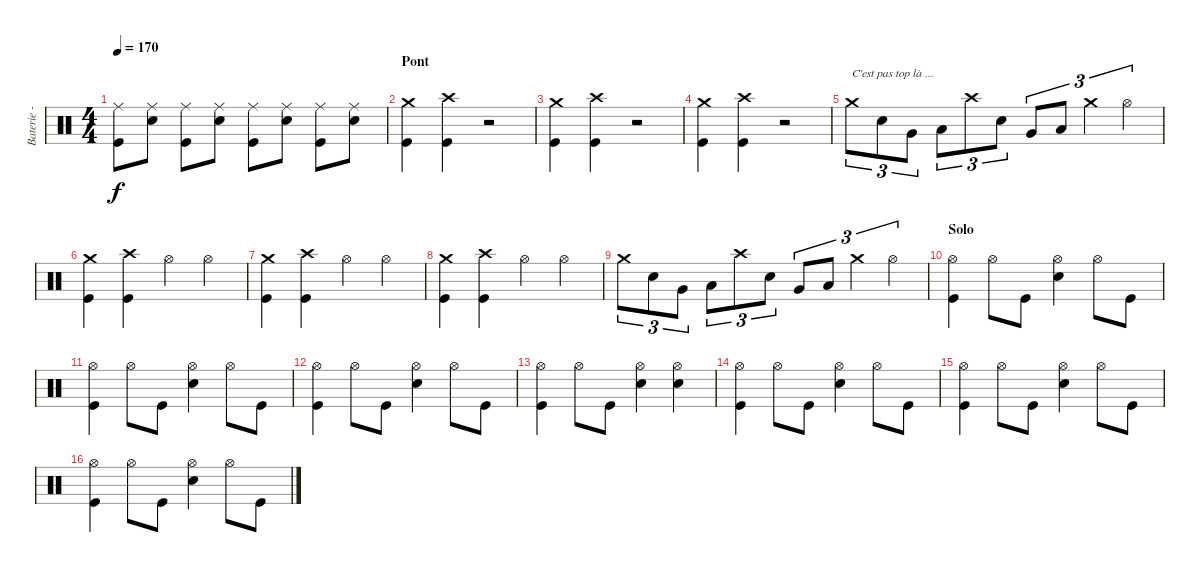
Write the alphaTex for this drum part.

\track ("Baterie - Guillaume" "Baterie - ") {instrument percussion}
\staff {score}
\articulation defaults
\ts (4 4)
\tempo 170
\clef neutral
\ks c
("Ride (middle)" "Kick (hit)").8{dy f} ("Ride (middle)" "Electric Snare (hit)").8 ("Ride (middle)" "Kick (hit)").8 ("Ride (middle)" "Electric Snare (hit)").8 ("Ride (middle)" "Kick (hit)").8 ("Ride (middle)" "Electric Snare (hit)").8 ("Ride (middle)" "Kick (hit)").8 ("Ride (middle)" "Electric Snare (hit)").8 |
\section ("" "Pont")
("Crash medium (hit)" "Kick (hit)").4 ("Crash high (hit)" "Kick (hit)").4 r.2 |
("Crash medium (hit)" "Kick (hit)").4 ("Crash high (hit)" "Kick (hit)").4 r.2 |
("Crash medium (hit)" "Kick (hit)").4 ("Crash high (hit)" "Kick (hit)").4 r.2 |
"Crash medium (hit)".8{tu (3 2) txt "C'est pas top là ... "} "Electric Snare (hit)".8{tu (3 2)} "Very Low Tom (hit)".8{tu (3 2)} "Low Tom (hit)".8{tu (3 2)} "Crash high (hit)".8{tu (3 2)} "Electric Snare (hit)".8{tu (3 2)} "Very Low Tom (hit)".8{tu (3 2)} "Low Tom (hit)".8{tu (3 2)} "Crash medium (hit)".4{tu (3 2)} "Hi-Hat (open)".4{tu (3 2)} |
("Crash medium (hit)" "Kick (hit)").4 ("Crash high (hit)" "Kick (hit)").4 "Hi-Hat (open)".4 "Hi-Hat (open)".4 |
("Crash medium (hit)" "Kick (hit)").4 ("Crash high (hit)" "Kick (hit)").4 "Hi-Hat (open)".4 "Hi-Hat (open)".4 |
("Crash medium (hit)" "Kick (hit)").4 ("Crash high (hit)" "Kick (hit)").4 "Hi-Hat (open)".4 "Hi-Hat (open)".4 |
"Crash medium (hit)".8{tu (3 2)} "Electric Snare (hit)".8{tu (3 2)} "Very Low Tom (hit)".8{tu (3 2)} "Low Tom (hit)".8{tu (3 2)} "Crash high (hit)".8{tu (3 2)} "Electric Snare (hit)".8{tu (3 2)} "Very Low Tom (hit)".8{tu (3 2)} "Low Tom (hit)".8{tu (3 2)} "Crash medium (hit)".4{tu (3 2)} "Hi-Hat (open)".4{tu (3 2)} |
\section ("" "Solo")
("Hi-Hat (open)" "Kick (hit)").4 "Hi-Hat (open)".8 "Kick (hit)".8 ("Hi-Hat (open)" "Electric Snare (hit)").4 "Hi-Hat (open)".8 "Kick (hit)".8 |
("Hi-Hat (open)" "Kick (hit)").4 "Hi-Hat (open)".8 "Kick (hit)".8 ("Hi-Hat (open)" "Electric Snare (hit)").4 "Hi-Hat (open)".8 "Kick (hit)".8 |
("Hi-Hat (open)" "Kick (hit)").4 "Hi-Hat (open)".8 "Kick (hit)".8 ("Hi-Hat (open)" "Electric Snare (hit)").4 "Hi-Hat (open)".8 "Kick (hit)".8 |
("Hi-Hat (open)" "Kick (hit)").4 "Hi-Hat (open)".8 "Kick (hit)".8 ("Hi-Hat (open)" "Electric Snare (hit)").4 ("Hi-Hat (open)" "Electric Snare (hit)").4 |
("Hi-Hat (open)" "Kick (hit)").4 "Hi-Hat (open)".8 "Kick (hit)".8 ("Hi-Hat (open)" "Electric Snare (hit)").4 "Hi-Hat (open)".8 "Kick (hit)".8 |
("Hi-Hat (open)" "Kick (hit)").4 "Hi-Hat (open)".8 "Kick (hit)".8 ("Hi-Hat (open)" "Electric Snare (hit)").4 "Hi-Hat (open)".8 "Kick (hit)".8 |
("Hi-Hat (open)" "Kick (hit)").4 "Hi-Hat (open)".8 "Kick (hit)".8 ("Hi-Hat (open)" "Electric Snare (hit)").4 "Hi-Hat (open)".8 "Kick (hit)".8
